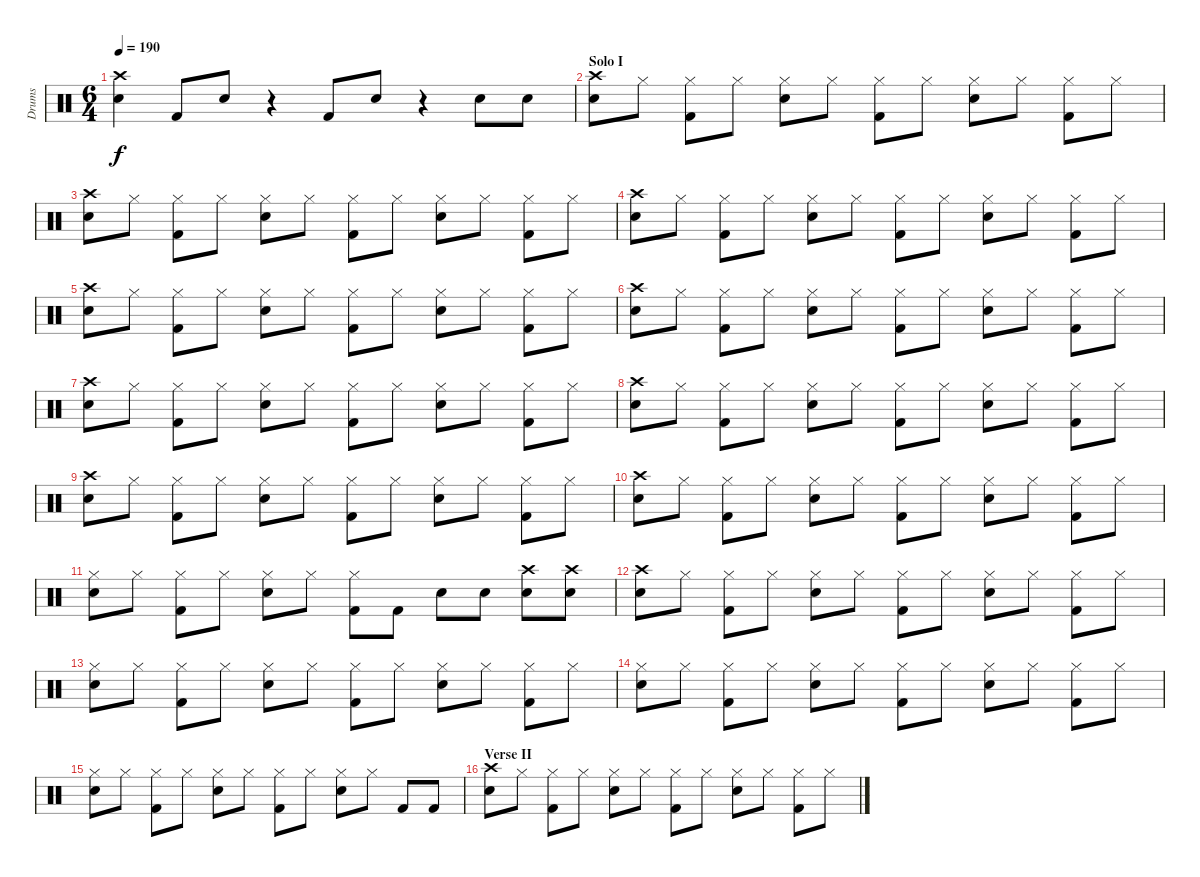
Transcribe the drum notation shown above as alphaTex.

\track ("Drums" "Drums") {instrument percussion}
\staff {score}
\articulation defaults
\ts (6 4)
\tempo 190
\clef neutral
\ks c
("Crash high (hit)" "Snare (hit) 2").4{dy f} "Kick (hit) 2".8 "Snare (hit) 2".8 r.4 "Kick (hit) 2".8 "Snare (hit) 2".8 r.4 "Snare (hit) 2".8 "Snare (hit) 2".8 |
\section ("" "Solo I")
("Crash high (hit)" "Snare (hit) 2").8 "Hi-Hat (closed)".8 ("Hi-Hat (closed)" "Kick (hit) 2").8 "Hi-Hat (closed)".8 ("Hi-Hat (closed)" "Snare (hit) 2").8 "Hi-Hat (closed)".8 ("Hi-Hat (closed)" "Kick (hit) 2").8 "Hi-Hat (closed)".8 ("Hi-Hat (closed)" "Snare (hit) 2").8 "Hi-Hat (closed)".8 ("Hi-Hat (closed)" "Kick (hit) 2").8 "Hi-Hat (closed)".8 |
("Crash high (hit)" "Snare (hit) 2").8 "Hi-Hat (closed)".8 ("Hi-Hat (closed)" "Kick (hit) 2").8 "Hi-Hat (closed)".8 ("Hi-Hat (closed)" "Snare (hit) 2").8 "Hi-Hat (closed)".8 ("Hi-Hat (closed)" "Kick (hit) 2").8 "Hi-Hat (closed)".8 ("Hi-Hat (closed)" "Snare (hit) 2").8 "Hi-Hat (closed)".8 ("Hi-Hat (closed)" "Kick (hit) 2").8 "Hi-Hat (closed)".8 |
("Crash high (hit)" "Snare (hit) 2").8 "Hi-Hat (closed)".8 ("Hi-Hat (closed)" "Kick (hit) 2").8 "Hi-Hat (closed)".8 ("Hi-Hat (closed)" "Snare (hit) 2").8 "Hi-Hat (closed)".8 ("Hi-Hat (closed)" "Kick (hit) 2").8 "Hi-Hat (closed)".8 ("Hi-Hat (closed)" "Snare (hit) 2").8 "Hi-Hat (closed)".8 ("Hi-Hat (closed)" "Kick (hit) 2").8 "Hi-Hat (closed)".8 |
("Crash high (hit)" "Snare (hit) 2").8 "Hi-Hat (closed)".8 ("Hi-Hat (closed)" "Kick (hit) 2").8 "Hi-Hat (closed)".8 ("Hi-Hat (closed)" "Snare (hit) 2").8 "Hi-Hat (closed)".8 ("Hi-Hat (closed)" "Kick (hit) 2").8 "Hi-Hat (closed)".8 ("Hi-Hat (closed)" "Snare (hit) 2").8 "Hi-Hat (closed)".8 ("Hi-Hat (closed)" "Kick (hit) 2").8 "Hi-Hat (closed)".8 |
("Crash high (hit)" "Snare (hit) 2").8 "Hi-Hat (closed)".8 ("Hi-Hat (closed)" "Kick (hit) 2").8 "Hi-Hat (closed)".8 ("Hi-Hat (closed)" "Snare (hit) 2").8 "Hi-Hat (closed)".8 ("Hi-Hat (closed)" "Kick (hit) 2").8 "Hi-Hat (closed)".8 ("Hi-Hat (closed)" "Snare (hit) 2").8 "Hi-Hat (closed)".8 ("Hi-Hat (closed)" "Kick (hit) 2").8 "Hi-Hat (closed)".8 |
("Crash high (hit)" "Snare (hit) 2").8 "Hi-Hat (closed)".8 ("Hi-Hat (closed)" "Kick (hit) 2").8 "Hi-Hat (closed)".8 ("Hi-Hat (closed)" "Snare (hit) 2").8 "Hi-Hat (closed)".8 ("Hi-Hat (closed)" "Kick (hit) 2").8 "Hi-Hat (closed)".8 ("Hi-Hat (closed)" "Snare (hit) 2").8 "Hi-Hat (closed)".8 ("Hi-Hat (closed)" "Kick (hit) 2").8 "Hi-Hat (closed)".8 |
("Crash high (hit)" "Snare (hit) 2").8 "Hi-Hat (closed)".8 ("Hi-Hat (closed)" "Kick (hit) 2").8 "Hi-Hat (closed)".8 ("Hi-Hat (closed)" "Snare (hit) 2").8 "Hi-Hat (closed)".8 ("Hi-Hat (closed)" "Kick (hit) 2").8 "Hi-Hat (closed)".8 ("Hi-Hat (closed)" "Snare (hit) 2").8 "Hi-Hat (closed)".8 ("Hi-Hat (closed)" "Kick (hit) 2").8 "Hi-Hat (closed)".8 |
("Crash high (hit)" "Snare (hit) 2").8 "Hi-Hat (closed)".8 ("Hi-Hat (closed)" "Kick (hit) 2").8 "Hi-Hat (closed)".8 ("Hi-Hat (closed)" "Snare (hit) 2").8 "Hi-Hat (closed)".8 ("Hi-Hat (closed)" "Kick (hit) 2").8 "Hi-Hat (closed)".8 ("Hi-Hat (closed)" "Snare (hit) 2").8 "Hi-Hat (closed)".8 ("Hi-Hat (closed)" "Kick (hit) 2").8 "Hi-Hat (closed)".8 |
("Crash high (hit)" "Snare (hit) 2").8 "Hi-Hat (closed)".8 ("Hi-Hat (closed)" "Kick (hit) 2").8 "Hi-Hat (closed)".8 ("Hi-Hat (closed)" "Snare (hit) 2").8 "Hi-Hat (closed)".8 ("Hi-Hat (closed)" "Kick (hit) 2").8 "Hi-Hat (closed)".8 ("Hi-Hat (closed)" "Snare (hit) 2").8 "Hi-Hat (closed)".8 ("Hi-Hat (closed)" "Kick (hit) 2").8 "Hi-Hat (closed)".8 |
("Hi-Hat (closed)" "Snare (hit) 2").8 "Hi-Hat (closed)".8 ("Hi-Hat (closed)" "Kick (hit) 2").8 "Hi-Hat (closed)".8 ("Hi-Hat (closed)" "Snare (hit) 2").8 "Hi-Hat (closed)".8 ("Hi-Hat (closed)" "Kick (hit) 2").8 "Kick (hit) 2".8 "Snare (hit) 2".8 "Snare (hit) 2".8 ("Crash high (hit)" "Electric Snare (hit)").8 ("Crash high (hit)" "Electric Snare (hit)").8 |
("Crash high (hit)" "Snare (hit) 2").8 "Hi-Hat (closed)".8 ("Hi-Hat (closed)" "Kick (hit) 2").8 "Hi-Hat (closed)".8 ("Hi-Hat (closed)" "Snare (hit) 2").8 "Hi-Hat (closed)".8 ("Hi-Hat (closed)" "Kick (hit) 2").8 "Hi-Hat (closed)".8 ("Hi-Hat (closed)" "Snare (hit) 2").8 "Hi-Hat (closed)".8 ("Hi-Hat (closed)" "Kick (hit) 2").8 "Hi-Hat (closed)".8 |
("Hi-Hat (closed)" "Snare (hit) 2").8 "Hi-Hat (closed)".8 ("Hi-Hat (closed)" "Kick (hit) 2").8 "Hi-Hat (closed)".8 ("Hi-Hat (closed)" "Snare (hit) 2").8 "Hi-Hat (closed)".8 ("Hi-Hat (closed)" "Kick (hit) 2").8 "Hi-Hat (closed)".8 ("Hi-Hat (closed)" "Snare (hit) 2").8 "Hi-Hat (closed)".8 ("Hi-Hat (closed)" "Kick (hit) 2").8 "Hi-Hat (closed)".8 |
("Hi-Hat (closed)" "Snare (hit) 2").8 "Hi-Hat (closed)".8 ("Hi-Hat (closed)" "Kick (hit) 2").8 "Hi-Hat (closed)".8 ("Hi-Hat (closed)" "Snare (hit) 2").8 "Hi-Hat (closed)".8 ("Hi-Hat (closed)" "Kick (hit) 2").8 "Hi-Hat (closed)".8 ("Hi-Hat (closed)" "Snare (hit) 2").8 "Hi-Hat (closed)".8 ("Hi-Hat (closed)" "Kick (hit) 2").8 "Hi-Hat (closed)".8 |
("Hi-Hat (closed)" "Snare (hit) 2").8 "Hi-Hat (closed)".8 ("Hi-Hat (closed)" "Kick (hit) 2").8 "Hi-Hat (closed)".8 ("Hi-Hat (closed)" "Snare (hit) 2").8 "Hi-Hat (closed)".8 ("Hi-Hat (closed)" "Kick (hit) 2").8 "Hi-Hat (closed)".8 ("Hi-Hat (closed)" "Snare (hit) 2").8 "Hi-Hat (closed)".8 "Kick (hit) 2".8 "Kick (hit) 2".8 |
\section ("" "Verse II")
("Crash high (hit)" "Snare (hit) 2").8 "Hi-Hat (closed)".8 ("Hi-Hat (closed)" "Kick (hit) 2").8 "Hi-Hat (closed)".8 ("Hi-Hat (closed)" "Snare (hit) 2").8 "Hi-Hat (closed)".8 ("Hi-Hat (closed)" "Kick (hit) 2").8 "Hi-Hat (closed)".8 ("Hi-Hat (closed)" "Snare (hit) 2").8 "Hi-Hat (closed)".8 ("Hi-Hat (closed)" "Kick (hit) 2").8 "Hi-Hat (closed)".8
